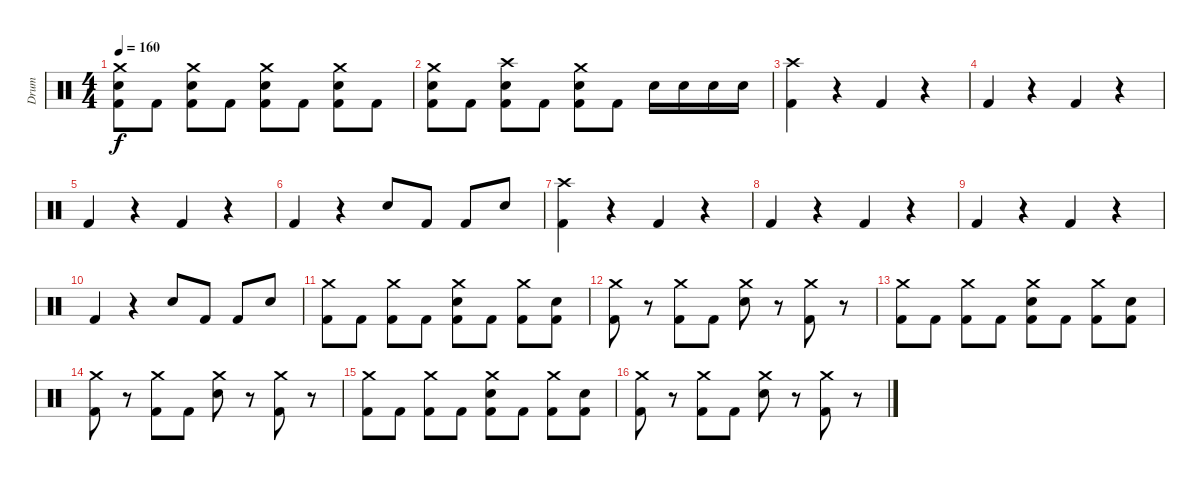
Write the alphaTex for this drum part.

\track ("Drum" "Drum") {instrument percussion}
\staff {score}
\articulation defaults
\ts (4 4)
\tempo 160
\clef neutral
\ks c
("Crash medium (hit)" "Electric Snare (hit)" "Kick (hit) 2").8{dy f} "Kick (hit) 2".8 ("Crash medium (hit)" "Electric Snare (hit)" "Kick (hit) 2").8 "Kick (hit) 2".8 ("Crash medium (hit)" "Electric Snare (hit)" "Kick (hit) 2").8 "Kick (hit) 2".8 ("Crash medium (hit)" "Electric Snare (hit)" "Kick (hit) 2").8 "Kick (hit) 2".8 |
("Crash medium (hit)" "Electric Snare (hit)" "Kick (hit) 2").8 "Kick (hit) 2".8 ("Crash high (hit)" "Electric Snare (hit)" "Kick (hit) 2").8 "Kick (hit) 2".8 ("Crash medium (hit)" "Electric Snare (hit)" "Kick (hit) 2").8 "Kick (hit) 2".8 "Electric Snare (hit)".16 "Electric Snare (hit)".16 "Electric Snare (hit)".16 "Electric Snare (hit)".16 |
("Crash high (hit)" "Kick (hit) 2").4 r.4 "Kick (hit) 2".4 r.4 |
"Kick (hit) 2".4 r.4 "Kick (hit) 2".4 r.4 |
"Kick (hit) 2".4 r.4 "Kick (hit) 2".4 r.4 |
"Kick (hit) 2".4 r.4 "Electric Snare (hit)".8 "Kick (hit) 2".8 "Kick (hit) 2".8 "Electric Snare (hit)".8 |
("Crash high (hit)" "Kick (hit) 2").4 r.4 "Kick (hit) 2".4 r.4 |
"Kick (hit) 2".4 r.4 "Kick (hit) 2".4 r.4 |
"Kick (hit) 2".4 r.4 "Kick (hit) 2".4 r.4 |
"Kick (hit) 2".4 r.4 "Electric Snare (hit)".8 "Kick (hit) 2".8 "Kick (hit) 2".8 "Electric Snare (hit)".8 |
("Crash medium (hit)" "Kick (hit) 2").8 "Kick (hit) 2".8 ("Crash medium (hit)" "Kick (hit) 2").8 "Kick (hit) 2".8 ("Crash medium (hit)" "Electric Snare (hit)" "Kick (hit) 2").8 "Kick (hit) 2".8 ("Crash medium (hit)" "Kick (hit) 2").8 ("Electric Snare (hit)" "Kick (hit) 2").8 |
("Crash medium (hit)" "Kick (hit) 2").8 r.8 ("Crash medium (hit)" "Kick (hit) 2").8 "Kick (hit) 2".8 ("Crash medium (hit)" "Electric Snare (hit)").8 r.8 ("Crash medium (hit)" "Kick (hit) 2").8 r.8 |
("Crash medium (hit)" "Kick (hit) 2").8 "Kick (hit) 2".8 ("Crash medium (hit)" "Kick (hit) 2").8 "Kick (hit) 2".8 ("Crash medium (hit)" "Electric Snare (hit)" "Kick (hit) 2").8 "Kick (hit) 2".8 ("Crash medium (hit)" "Kick (hit) 2").8 ("Electric Snare (hit)" "Kick (hit) 2").8 |
("Crash medium (hit)" "Kick (hit) 2").8 r.8 ("Crash medium (hit)" "Kick (hit) 2").8 "Kick (hit) 2".8 ("Crash medium (hit)" "Electric Snare (hit)").8 r.8 ("Crash medium (hit)" "Kick (hit) 2").8 r.8 |
("Crash medium (hit)" "Kick (hit) 2").8 "Kick (hit) 2".8 ("Crash medium (hit)" "Kick (hit) 2").8 "Kick (hit) 2".8 ("Crash medium (hit)" "Electric Snare (hit)" "Kick (hit) 2").8 "Kick (hit) 2".8 ("Crash medium (hit)" "Kick (hit) 2").8 ("Electric Snare (hit)" "Kick (hit) 2").8 |
("Crash medium (hit)" "Kick (hit) 2").8 r.8 ("Crash medium (hit)" "Kick (hit) 2").8 "Kick (hit) 2".8 ("Crash medium (hit)" "Electric Snare (hit)").8 r.8 ("Crash medium (hit)" "Kick (hit) 2").8 r.8
